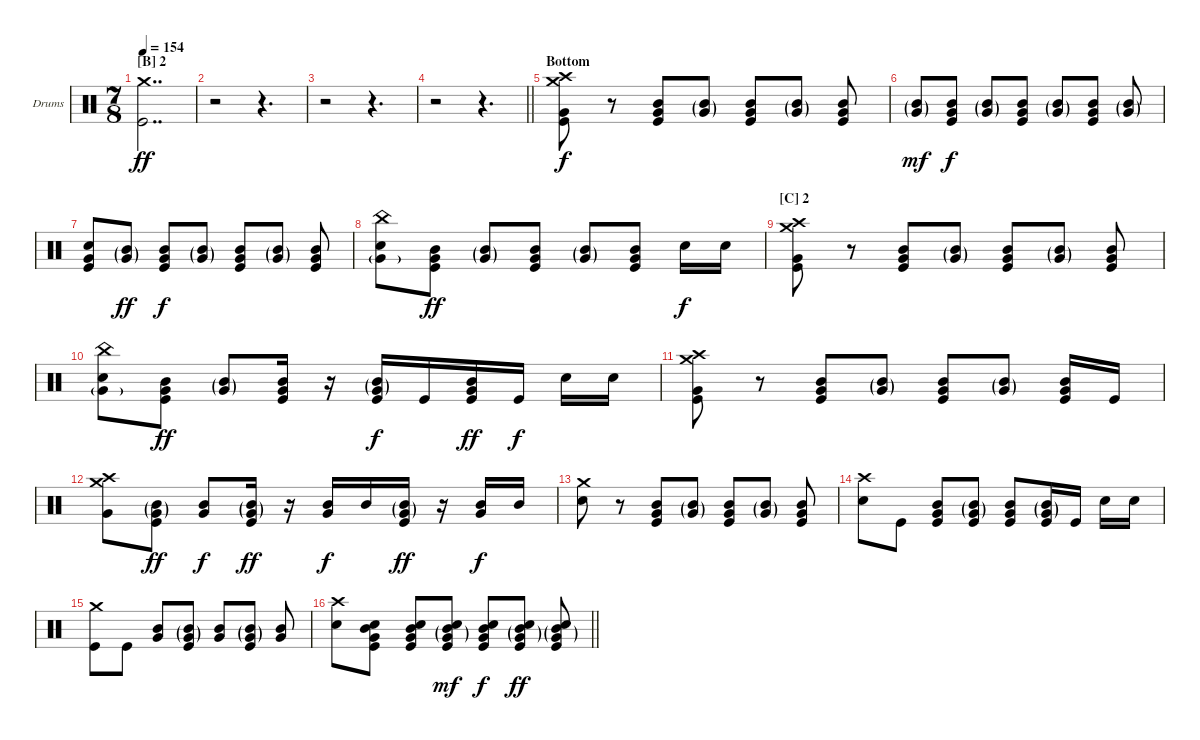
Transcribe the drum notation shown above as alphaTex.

\bracketExtendMode groupsimilarinstruments
\firstSystemTrackNameOrientation horizontal
\otherSystemsTrackNameOrientation horizontal
\track ("Navene Koperweis" "Drums") {instrument percussion}
\staff {score}
\articulation defaults
\ts (7 8)
\beaming (8 2 2 2 2)
\section ("B" "2")
\tempo 154
\clef neutral
\ks c
("Crash medium (hit)" "Kick (hit)").2{dd dy ff} |
r.2 r.4{d} |
r.2 r.4{d} |
\barLineRight lightlight
r.2 r.4{d} |
\section ("" "Bottom")
("Crash medium (hit)" "Crash high (hit)" "Very Low Tom (hit)" "Kick (hit)").8{dy f} r.8 ("Mid Tom (hit)" "Very Low Tom (hit)" "Kick (hit)").8 ("Mid Tom (hit)"{g} "Very Low Tom (hit)"{g}).8 ("Mid Tom (hit)" "Very Low Tom (hit)" "Kick (hit)").8 ("Mid Tom (hit)"{g} "Very Low Tom (hit)"{g}).8 ("Mid Tom (hit)" "Very Low Tom (hit)" "Kick (hit)").8 |
("Mid Tom (hit)"{g} "Very Low Tom (hit)"{g}).8{dy mf} ("Mid Tom (hit)" "Very Low Tom (hit)" "Kick (hit)").8{dy f} ("Mid Tom (hit)"{g} "Very Low Tom (hit)"{g}).8 ("Mid Tom (hit)" "Very Low Tom (hit)" "Kick (hit)").8 ("Mid Tom (hit)"{g} "Very Low Tom (hit)"{g}).8 ("Mid Tom (hit)" "Very Low Tom (hit)" "Kick (hit)").8 ("Mid Tom (hit)"{g} "Very Low Tom (hit)"{g}).8 |
("Snare (hit) 2" "Very Low Tom (hit)" "Kick (hit)").8 ("Mid Tom (hit)"{g} "Very Low Tom (hit)"{g}).8{dy ff} ("Mid Tom (hit)" "Very Low Tom (hit)" "Kick (hit)").8{dy f} ("Mid Tom (hit)"{g} "Very Low Tom (hit)"{g}).8 ("Mid Tom (hit)" "Very Low Tom (hit)" "Kick (hit)").8 ("Mid Tom (hit)"{g} "Very Low Tom (hit)"{g}).8 ("Mid Tom (hit)" "Very Low Tom (hit)" "Kick (hit)").8 |
("China (hit)" "Snare (hit) 2" "Very Low Tom (hit)"{g}).8 ("Mid Tom (hit)" "Very Low Tom (hit)" "Kick (hit)").8{dy ff} ("Mid Tom (hit)"{g} "Very Low Tom (hit)"{g}).8 ("Mid Tom (hit)" "Very Low Tom (hit)" "Kick (hit)").8 ("Mid Tom (hit)"{g} "Very Low Tom (hit)"{g}).8 ("Mid Tom (hit)" "Very Low Tom (hit)" "Kick (hit)").8 "Snare (hit) 2".16{dy f} "Snare (hit) 2".16 |
\section ("C" "2")
("Crash medium (hit)" "Crash high (hit)" "Very Low Tom (hit)" "Kick (hit)").8 r.8 ("Mid Tom (hit)" "Very Low Tom (hit)" "Kick (hit)").8 ("Mid Tom (hit)"{g} "Very Low Tom (hit)"{g}).8 ("Mid Tom (hit)" "Very Low Tom (hit)" "Kick (hit)").8 ("Mid Tom (hit)"{g} "Very Low Tom (hit)"{g}).8 ("Mid Tom (hit)" "Very Low Tom (hit)" "Kick (hit)").8 |
("China (hit)" "Snare (hit) 2" "Very Low Tom (hit)"{g}).8 ("Mid Tom (hit)" "Very Low Tom (hit)" "Kick (hit)").8{dy ff} ("Mid Tom (hit)"{g} "Very Low Tom (hit)"{g}).8 ("Mid Tom (hit)" "Very Low Tom (hit)" "Kick (hit)").16 r.16 ("Mid Tom (hit)"{g} "Very Low Tom (hit)"{g} "Kick (hit)").16{dy f} "Kick (hit)".16 ("Mid Tom (hit)" "Very Low Tom (hit)" "Kick (hit)").16{dy ff} "Kick (hit)".16{dy f} "Snare (hit) 2".16 "Snare (hit) 2".16 |
("Crash medium (hit)" "Crash high (hit)" "Very Low Tom (hit)" "Kick (hit)").8 r.8 ("Mid Tom (hit)" "Very Low Tom (hit)" "Kick (hit)").8 ("Mid Tom (hit)"{g} "Very Low Tom (hit)"{g}).8 ("Mid Tom (hit)" "Very Low Tom (hit)" "Kick (hit)").8 ("Mid Tom (hit)"{g} "Very Low Tom (hit)"{g}).8 ("Mid Tom (hit)" "Very Low Tom (hit)" "Kick (hit)").16 "Kick (hit)".16 |
("Crash medium (hit)" "Crash high (hit)" "Very Low Tom (hit)").8 ("Mid Tom (hit)"{g} "Very Low Tom (hit)"{g} "Kick (hit)").8{dy ff} ("Mid Tom (hit)" "Very Low Tom (hit)").8{dy f} ("Mid Tom (hit)"{g} "Very Low Tom (hit)"{g} "Kick (hit)").16{dy ff} r.16 ("Mid Tom (hit)" "Very Low Tom (hit)").16{dy f} "Mid Tom (hit)".16 ("Mid Tom (hit)"{g} "Very Low Tom (hit)"{g} "Kick (hit)").16{dy ff} r.16 ("Mid Tom (hit)" "Very Low Tom (hit)").16{dy f} "Mid Tom (hit)".16 |
("Crash medium (hit)" "Snare (hit) 2").8 r.8 ("Mid Tom (hit)" "Very Low Tom (hit)" "Kick (hit)").8 ("Mid Tom (hit)"{g} "Very Low Tom (hit)"{g}).8 ("Mid Tom (hit)" "Very Low Tom (hit)" "Kick (hit)").8 ("Mid Tom (hit)"{g} "Very Low Tom (hit)"{g}).8 ("Mid Tom (hit)" "Very Low Tom (hit)" "Kick (hit)").8 |
("Crash high (hit)" "Snare (hit) 2").8 "Kick (hit)".8 ("Mid Tom (hit)" "Very Low Tom (hit)" "Kick (hit)").8 ("Mid Tom (hit)"{g} "Very Low Tom (hit)"{g} "Kick (hit)").8 ("Mid Tom (hit)" "Very Low Tom (hit)" "Kick (hit)").8 ("Mid Tom (hit)"{g} "Very Low Tom (hit)"{g} "Kick (hit)").16 "Kick (hit)".16 "Snare (hit) 2".16 "Snare (hit) 2".16 |
("Crash medium (hit)" "Kick (hit)").8 "Kick (hit)".8 ("Mid Tom (hit)" "Very Low Tom (hit)").8 ("Mid Tom (hit)"{g} "Very Low Tom (hit)"{g} "Kick (hit)").8 ("Mid Tom (hit)" "Very Low Tom (hit)").8 ("Mid Tom (hit)"{g} "Very Low Tom (hit)"{g} "Kick (hit)").8 ("Mid Tom (hit)" "Very Low Tom (hit)").8 |
\barLineRight lightlight
("Crash high (hit)" "Snare (hit) 2").8 ("Mid Tom (hit)" "Very Low Tom (hit)" "Snare (hit) 2" "Kick (hit)").8 ("Mid Tom (hit)" "Very Low Tom (hit)" "Snare (hit) 2" "Kick (hit)").8 ("Mid Tom (hit)"{g} "Very Low Tom (hit)"{g} "Snare (hit) 2" "Kick (hit)").8{dy mf} ("Mid Tom (hit)" "Very Low Tom (hit)" "Snare (hit) 2" "Kick (hit)").8{dy f} ("Mid Tom (hit)"{g} "Very Low Tom (hit)"{g} "Snare (hit) 2" "Kick (hit)").8{dy ff} ("Mid Tom (hit)"{g} "Very Low Tom (hit)"{g} "Snare (hit) 2" "Kick (hit)").8
